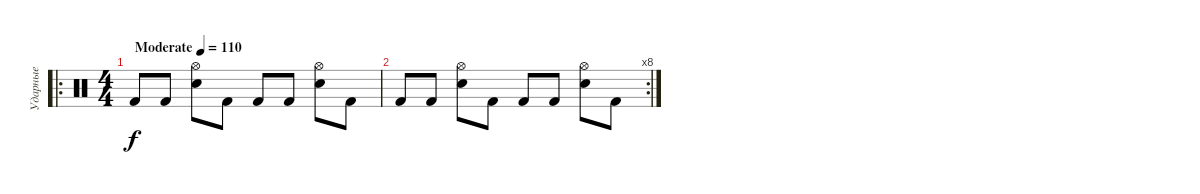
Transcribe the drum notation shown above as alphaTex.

\track ("Ударные" "Ударные") {instrument percussion}
\staff {score}
\articulation defaults
\ro
\ts (4 4)
\tempo (110 "Moderate")
\clef neutral
\ks c "Kick (hit) 2".8{dy f} "Kick (hit) 2".8
("Hi-Hat (open)" "Electric Snare (hit)").8 "Kick (hit) 2".8 "Kick (hit) 2".8 "Kick (hit) 2".8 ("Hi-Hat (open)" "Electric Snare (hit)").8 "Kick (hit) 2".8 |
\rc 8 "Kick (hit) 2".8 "Kick (hit) 2".8
("Hi-Hat (open)" "Electric Snare (hit)").8 "Kick (hit) 2".8 "Kick (hit) 2".8 "Kick (hit) 2".8 ("Hi-Hat (open)" "Electric Snare (hit)").8 "Kick (hit) 2".8
